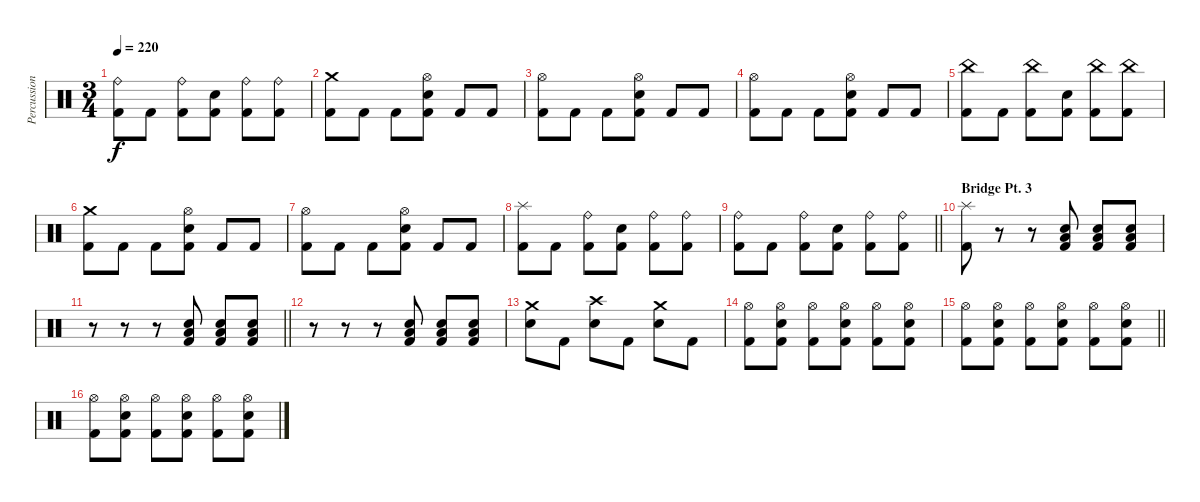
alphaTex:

\track ("Percussion" "Percussion") {instrument percussion}
\staff {score}
\articulation defaults
\ts (3 4)
\tempo 220
\clef neutral
\ks c
("Ride (bell)" "Kick (hit) 2").8{dy f} "Kick (hit) 2".8 ("Ride (bell)" "Kick (hit) 2").8 ("Electric Snare (hit)" "Kick (hit) 2").8 ("Ride (bell)" "Kick (hit) 2").8 ("Ride (bell)" "Kick (hit) 2").8 |
("Crash medium (hit)" "Kick (hit) 2").8 "Kick (hit) 2".8 "Kick (hit) 2".8 ("Hi-Hat (open)" "Electric Snare (hit)" "Kick (hit) 2").8 "Kick (hit) 2".8 "Kick (hit) 2".8 |
("Hi-Hat (open)" "Kick (hit) 2").8 "Kick (hit) 2".8 "Kick (hit) 2".8 ("Hi-Hat (open)" "Electric Snare (hit)" "Kick (hit) 2").8 "Kick (hit) 2".8 "Kick (hit) 2".8 |
("Hi-Hat (open)" "Kick (hit) 2").8 "Kick (hit) 2".8 "Kick (hit) 2".8 ("Hi-Hat (open)" "Electric Snare (hit)" "Kick (hit) 2").8 "Kick (hit) 2".8 "Kick (hit) 2".8 |
("China (hit)" "Kick (hit) 2").8 "Kick (hit) 2".8 ("China (hit)" "Kick (hit) 2").8 ("Electric Snare (hit)" "Kick (hit) 2").8 ("China (hit)" "Kick (hit) 2").8 ("China (hit)" "Kick (hit) 2").8 |
("Crash medium (hit)" "Kick (hit) 2").8 "Kick (hit) 2".8 "Kick (hit) 2".8 ("Hi-Hat (open)" "Electric Snare (hit)" "Kick (hit) 2").8 "Kick (hit) 2".8 "Kick (hit) 2".8 |
("Hi-Hat (open)" "Kick (hit) 2").8 "Kick (hit) 2".8 "Kick (hit) 2".8 ("Hi-Hat (open)" "Electric Snare (hit)" "Kick (hit) 2").8 "Kick (hit) 2".8 "Kick (hit) 2".8 |
("Splash (hit)" "Kick (hit) 2").8 "Kick (hit) 2".8 ("Ride (bell)" "Kick (hit) 2").8 ("Electric Snare (hit)" "Kick (hit) 2").8 ("Ride (bell)" "Kick (hit) 2").8 ("Ride (bell)" "Kick (hit) 2").8 |
\barLineRight lightlight
("Ride (bell)" "Kick (hit) 2").8 "Kick (hit) 2".8 ("Ride (bell)" "Kick (hit) 2").8 ("Electric Snare (hit)" "Kick (hit) 2").8 ("Ride (bell)" "Kick (hit) 2").8 ("Ride (bell)" "Kick (hit) 2").8 |
\section ("" "Bridge Pt. 3")
("Splash (hit)" "Kick (hit) 2").8 r.8 r.8 ("Low Floor Tom (hit)" "Electric Snare (hit)" "Kick (hit) 2").8 ("Low Floor Tom (hit)" "Electric Snare (hit)" "Kick (hit) 2").8 ("Low Floor Tom (hit)" "Electric Snare (hit)" "Kick (hit) 2").8 |
\barLineRight lightlight
r.8 r.8 r.8 ("Low Floor Tom (hit)" "Electric Snare (hit)" "Kick (hit) 2").8 ("Low Floor Tom (hit)" "Electric Snare (hit)" "Kick (hit) 2").8 ("Low Floor Tom (hit)" "Electric Snare (hit)" "Kick (hit) 2").8 |
r.8 r.8 r.8 ("Low Floor Tom (hit)" "Electric Snare (hit)" "Kick (hit) 2").8 ("Low Floor Tom (hit)" "Electric Snare (hit)" "Kick (hit) 2").8 ("Low Floor Tom (hit)" "Electric Snare (hit)" "Kick (hit) 2").8 |
("Crash medium (hit)" "Electric Snare (hit)").8 "Kick (hit) 2".8 ("Crash high (hit)" "Electric Snare (hit)").8 "Kick (hit) 2".8 ("Crash medium (hit)" "Electric Snare (hit)").8 "Kick (hit) 2".8 |
("Hi-Hat (open)" "Kick (hit) 2").8 ("Hi-Hat (open)" "Electric Snare (hit)" "Kick (hit) 2").8 ("Hi-Hat (open)" "Kick (hit) 2").8 ("Hi-Hat (open)" "Electric Snare (hit)" "Kick (hit) 2").8 ("Hi-Hat (open)" "Kick (hit) 2").8 ("Hi-Hat (open)" "Electric Snare (hit)" "Kick (hit) 2").8 |
\barLineRight lightlight
("Hi-Hat (open)" "Kick (hit) 2").8 ("Hi-Hat (open)" "Electric Snare (hit)" "Kick (hit) 2").8 ("Hi-Hat (open)" "Kick (hit) 2").8 ("Hi-Hat (open)" "Electric Snare (hit)" "Kick (hit) 2").8 ("Hi-Hat (open)" "Kick (hit) 2").8 ("Hi-Hat (open)" "Electric Snare (hit)" "Kick (hit) 2").8 |
("Hi-Hat (open)" "Kick (hit) 2").8 ("Hi-Hat (open)" "Electric Snare (hit)" "Kick (hit) 2").8 ("Hi-Hat (open)" "Kick (hit) 2").8 ("Hi-Hat (open)" "Electric Snare (hit)" "Kick (hit) 2").8 ("Hi-Hat (open)" "Kick (hit) 2").8 ("Hi-Hat (open)" "Electric Snare (hit)" "Kick (hit) 2").8
